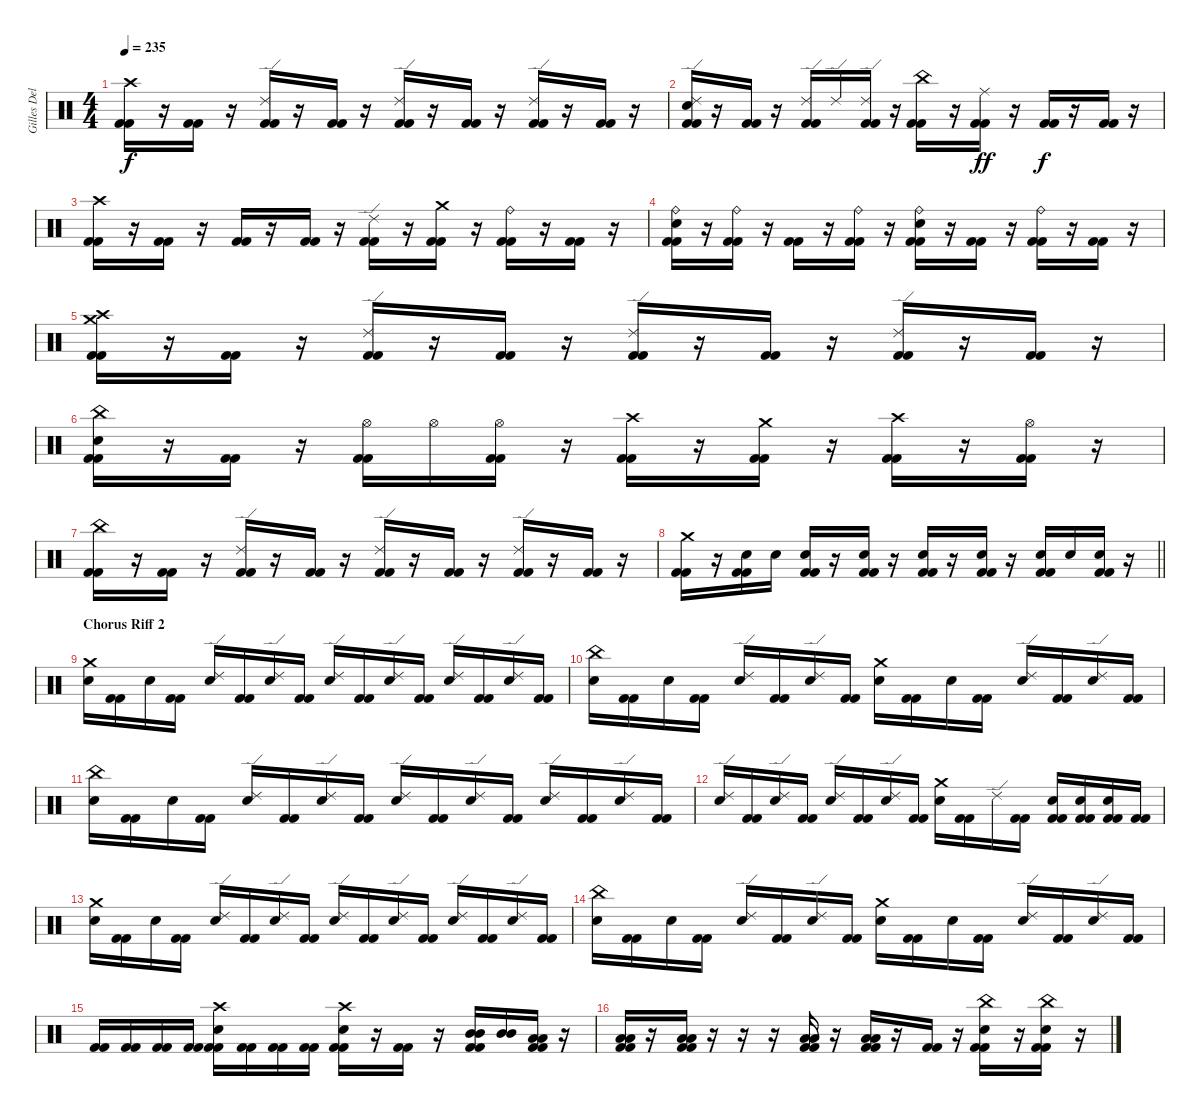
\track ("Gilles Delecroix" "Gilles Del") {instrument percussion}
\staff {score}
\articulation defaults
\ts (4 4)
\tempo 235
\clef neutral
\ks c
("Crash high (hit)" "Kick (hit) 2" "Kick (hit) 2").16{dy f} r.16 ("Kick (hit) 2" "Kick (hit) 2").16 r.16 ("Ride (edge) 2" "Kick (hit) 2" "Kick (hit) 2").16 r.16 ("Kick (hit) 2" "Kick (hit) 2").16 r.16 ("Ride (edge) 2" "Kick (hit) 2" "Kick (hit) 2").16 r.16 ("Kick (hit) 2" "Kick (hit) 2").16 r.16 ("Ride (edge) 2" "Kick (hit) 2" "Kick (hit) 2").16 r.16 ("Kick (hit) 2" "Kick (hit) 2").16 r.16 |
("Ride (edge) 2" "Electric Snare (hit)" "Kick (hit) 2" "Kick (hit) 2").16 r.16 ("Kick (hit) 2" "Kick (hit) 2").16 r.16 ("Ride (edge) 2" "Kick (hit) 2" "Kick (hit) 2").16 "Ride (edge) 2".16 ("Ride (edge) 2" "Kick (hit) 2" "Kick (hit) 2").16 r.16 ("China (hit)" "Kick (hit) 2" "Kick (hit) 2").16 r.16 ("Ride (middle)" "Kick (hit) 2" "Kick (hit) 2").16{dy ff} r.16 ("Kick (hit) 2" "Kick (hit) 2").16{dy f} r.16 ("Kick (hit) 2" "Kick (hit) 2").16 r.16 |
("Crash high (hit)" "Kick (hit) 2" "Kick (hit) 2").16 r.16 ("Kick (hit) 2" "Kick (hit) 2").16 r.16 ("Kick (hit) 2" "Kick (hit) 2").16 r.16 ("Kick (hit) 2" "Kick (hit) 2").16 r.16 ("Ride (edge) 2" "Kick (hit) 2" "Kick (hit) 2").16 r.16 ("Crash medium (hit)" "Kick (hit) 2" "Kick (hit) 2").16 r.16 ("Ride (bell)" "Kick (hit) 2" "Kick (hit) 2").16 r.16 ("Kick (hit) 2" "Kick (hit) 2").16 r.16 |
("Ride (bell)" "Electric Snare (hit)" "Kick (hit) 2" "Kick (hit) 2").16 r.16 ("Ride (bell)" "Kick (hit) 2" "Kick (hit) 2").16 r.16 ("Kick (hit) 2" "Kick (hit) 2").16 r.16 ("Ride (bell)" "Kick (hit) 2" "Kick (hit) 2").16 r.16 ("Ride (bell)" "Electric Snare (hit)" "Kick (hit) 2" "Kick (hit) 2").16 r.16 ("Kick (hit) 2" "Kick (hit) 2").16 r.16 ("Ride (bell)" "Kick (hit) 2" "Kick (hit) 2").16 r.16 ("Kick (hit) 2" "Kick (hit) 2").16 r.16 |
("Crash medium (hit)" "Crash high (hit)" "Kick (hit) 2" "Kick (hit) 2").16 r.16 ("Kick (hit) 2" "Kick (hit) 2").16 r.16 ("Ride (edge) 2" "Kick (hit) 2" "Kick (hit) 2").16 r.16 ("Kick (hit) 2" "Kick (hit) 2").16 r.16 ("Ride (edge) 2" "Kick (hit) 2" "Kick (hit) 2").16 r.16 ("Kick (hit) 2" "Kick (hit) 2").16 r.16 ("Ride (edge) 2" "Kick (hit) 2" "Kick (hit) 2").16 r.16 ("Kick (hit) 2" "Kick (hit) 2").16 r.16 |
("China (hit)" "Electric Snare (hit)" "Kick (hit) 2" "Kick (hit) 2").16 r.16 ("Kick (hit) 2" "Kick (hit) 2").16 r.16 ("Hi-Hat (open)" "Kick (hit) 2" "Kick (hit) 2").16 "Hi-Hat (open)".16 ("Hi-Hat (open)" "Kick (hit) 2" "Kick (hit) 2").16 r.16 ("Crash high (hit)" "Kick (hit) 2" "Kick (hit) 2").16 r.16 ("Crash medium (hit)" "Kick (hit) 2" "Kick (hit) 2").16 r.16 ("Crash high (hit)" "Kick (hit) 2" "Kick (hit) 2").16 r.16 ("Hi-Hat (open)" "Kick (hit) 2" "Kick (hit) 2").16 r.16 |
("China (hit)" "Kick (hit) 2" "Kick (hit) 2").16 r.16 ("Kick (hit) 2" "Kick (hit) 2").16 r.16 ("Ride (edge) 2" "Kick (hit) 2" "Kick (hit) 2").16 r.16 ("Kick (hit) 2" "Kick (hit) 2").16 r.16 ("Ride (edge) 2" "Kick (hit) 2" "Kick (hit) 2").16 r.16 ("Kick (hit) 2" "Kick (hit) 2").16 r.16 ("Ride (edge) 2" "Kick (hit) 2" "Kick (hit) 2").16 r.16 ("Kick (hit) 2" "Kick (hit) 2").16 r.16 |
\barLineRight lightlight
("Crash medium (hit)" "Kick (hit) 2" "Kick (hit) 2").16 r.16 ("Electric Snare (hit)" "Kick (hit) 2" "Kick (hit) 2").16 "Electric Snare (hit)".16 ("Electric Snare (hit)" "Kick (hit) 2" "Kick (hit) 2").16 r.16 ("Electric Snare (hit)" "Kick (hit) 2" "Kick (hit) 2").16 r.16 ("Electric Snare (hit)" "Kick (hit) 2" "Kick (hit) 2").16 r.16 ("Electric Snare (hit)" "Kick (hit) 2" "Kick (hit) 2").16 r.16 ("Electric Snare (hit)" "Kick (hit) 2" "Kick (hit) 2").16 "Electric Snare (hit)".16 ("Electric Snare (hit)" "Kick (hit) 2" "Kick (hit) 2").16 r.16 |
\section ("" "Chorus Riff 2")
("Crash medium (hit)" "Electric Snare (hit)").16 ("Kick (hit) 2" "Kick (hit) 2").16 "Electric Snare (hit)".16 ("Kick (hit) 2" "Kick (hit) 2").16 ("Ride (edge) 2" "Electric Snare (hit)").16 ("Kick (hit) 2" "Kick (hit) 2").16 ("Ride (edge) 2" "Electric Snare (hit)").16 ("Kick (hit) 2" "Kick (hit) 2").16 ("Ride (edge) 2" "Electric Snare (hit)").16 ("Kick (hit) 2" "Kick (hit) 2").16 ("Ride (edge) 2" "Electric Snare (hit)").16 ("Kick (hit) 2" "Kick (hit) 2").16 ("Ride (edge) 2" "Electric Snare (hit)").16 ("Kick (hit) 2" "Kick (hit) 2").16 ("Ride (edge) 2" "Electric Snare (hit)").16 ("Kick (hit) 2" "Kick (hit) 2").16 |
("China (hit)" "Electric Snare (hit)").16 ("Kick (hit) 2" "Kick (hit) 2").16 "Electric Snare (hit)".16 ("Kick (hit) 2" "Kick (hit) 2").16 ("Ride (edge) 2" "Electric Snare (hit)").16 ("Kick (hit) 2" "Kick (hit) 2").16 ("Ride (edge) 2" "Electric Snare (hit)").16 ("Kick (hit) 2" "Kick (hit) 2").16 ("Crash medium (hit)" "Electric Snare (hit)").16 ("Kick (hit) 2" "Kick (hit) 2").16 "Electric Snare (hit)".16 ("Kick (hit) 2" "Kick (hit) 2").16 ("Ride (edge) 2" "Electric Snare (hit)").16 ("Kick (hit) 2" "Kick (hit) 2").16 ("Ride (edge) 2" "Electric Snare (hit)").16 ("Kick (hit) 2" "Kick (hit) 2").16 |
("China (hit)" "Electric Snare (hit)").16 ("Kick (hit) 2" "Kick (hit) 2").16 "Electric Snare (hit)".16 ("Kick (hit) 2" "Kick (hit) 2").16 ("Ride (edge) 2" "Electric Snare (hit)").16 ("Kick (hit) 2" "Kick (hit) 2").16 ("Ride (edge) 2" "Electric Snare (hit)").16 ("Kick (hit) 2" "Kick (hit) 2").16 ("Ride (edge) 2" "Electric Snare (hit)").16 ("Kick (hit) 2" "Kick (hit) 2").16 ("Ride (edge) 2" "Electric Snare (hit)").16 ("Kick (hit) 2" "Kick (hit) 2").16 ("Ride (edge) 2" "Electric Snare (hit)").16 ("Kick (hit) 2" "Kick (hit) 2").16 ("Ride (edge) 2" "Electric Snare (hit)").16 ("Kick (hit) 2" "Kick (hit) 2").16 |
("Ride (edge) 2" "Electric Snare (hit)").16 ("Kick (hit) 2" "Kick (hit) 2").16 ("Ride (edge) 2" "Electric Snare (hit)").16 ("Kick (hit) 2" "Kick (hit) 2").16 ("Ride (edge) 2" "Electric Snare (hit)").16 ("Kick (hit) 2" "Kick (hit) 2").16 ("Ride (edge) 2" "Electric Snare (hit)").16 ("Kick (hit) 2" "Kick (hit) 2").16 ("Crash medium (hit)" "Electric Snare (hit)").16 ("Kick (hit) 2" "Kick (hit) 2").16 "Ride (edge) 2".16 ("Kick (hit) 2" "Kick (hit) 2").16 ("Electric Snare (hit)" "Kick (hit) 2" "Kick (hit) 2").16 ("Electric Snare (hit)" "Kick (hit) 2" "Kick (hit) 2").16 ("Electric Snare (hit)" "Kick (hit) 2" "Kick (hit) 2").16 ("Kick (hit) 2" "Kick (hit) 2").16 |
("Crash medium (hit)" "Electric Snare (hit)").16 ("Kick (hit) 2" "Kick (hit) 2").16 "Electric Snare (hit)".16 ("Kick (hit) 2" "Kick (hit) 2").16 ("Ride (edge) 2" "Electric Snare (hit)").16 ("Kick (hit) 2" "Kick (hit) 2").16 ("Ride (edge) 2" "Electric Snare (hit)").16 ("Kick (hit) 2" "Kick (hit) 2").16 ("Ride (edge) 2" "Electric Snare (hit)").16 ("Kick (hit) 2" "Kick (hit) 2").16 ("Ride (edge) 2" "Electric Snare (hit)").16 ("Kick (hit) 2" "Kick (hit) 2").16 ("Ride (edge) 2" "Electric Snare (hit)").16 ("Kick (hit) 2" "Kick (hit) 2").16 ("Ride (edge) 2" "Electric Snare (hit)").16 ("Kick (hit) 2" "Kick (hit) 2").16 |
("China (hit)" "Electric Snare (hit)").16 ("Kick (hit) 2" "Kick (hit) 2").16 "Electric Snare (hit)".16 ("Kick (hit) 2" "Kick (hit) 2").16 ("Ride (edge) 2" "Electric Snare (hit)").16 ("Kick (hit) 2" "Kick (hit) 2").16 ("Ride (edge) 2" "Electric Snare (hit)").16 ("Kick (hit) 2" "Kick (hit) 2").16 ("Crash medium (hit)" "Electric Snare (hit)").16 ("Kick (hit) 2" "Kick (hit) 2").16 "Electric Snare (hit)".16 ("Kick (hit) 2" "Kick (hit) 2").16 ("Ride (edge) 2" "Electric Snare (hit)").16 ("Kick (hit) 2" "Kick (hit) 2").16 ("Ride (edge) 2" "Electric Snare (hit)").16 ("Kick (hit) 2" "Kick (hit) 2").16 |
("Kick (hit) 2" "Kick (hit) 2").16 ("Kick (hit) 2" "Kick (hit) 2").16 ("Kick (hit) 2" "Kick (hit) 2").16 ("Kick (hit) 2" "Kick (hit) 2").16 ("Crash high (hit)" "Electric Snare (hit)" "Kick (hit) 2" "Kick (hit) 2").16 ("Kick (hit) 2" "Kick (hit) 2").16 ("Kick (hit) 2" "Kick (hit) 2").16 ("Kick (hit) 2" "Kick (hit) 2").16 ("Crash high (hit)" "Electric Snare (hit)" "Kick (hit) 2" "Kick (hit) 2").16 r.16 ("Kick (hit) 2" "Kick (hit) 2").16 r.16 ("Mid Tom (hit)" "Mid Tom (hit)" "Kick (hit) 2" "Kick (hit) 2").16 ("Mid Tom (hit)" "Mid Tom (hit)").16 ("Low Tom (hit)" "Low Tom (hit)" "Kick (hit) 2" "Kick (hit) 2").16 r.16 |
("Low Tom (hit)" "Low Tom (hit)" "Kick (hit) 2" "Kick (hit) 2").16 r.16 ("Low Tom (hit)" "Low Tom (hit)" "Kick (hit) 2" "Kick (hit) 2").16 r.16 r.16 r.16 ("Low Tom (hit)" "Low Tom (hit)" "Kick (hit) 2" "Kick (hit) 2").16 r.16 ("Low Tom (hit)" "Low Tom (hit)" "Kick (hit) 2" "Kick (hit) 2").16 r.16 ("Kick (hit) 2" "Kick (hit) 2").16 r.16 ("China (hit)" "Electric Snare (hit)" "Kick (hit) 2" "Kick (hit) 2").16 r.16 ("China (hit)" "Electric Snare (hit)" "Kick (hit) 2" "Kick (hit) 2").16 r.16
